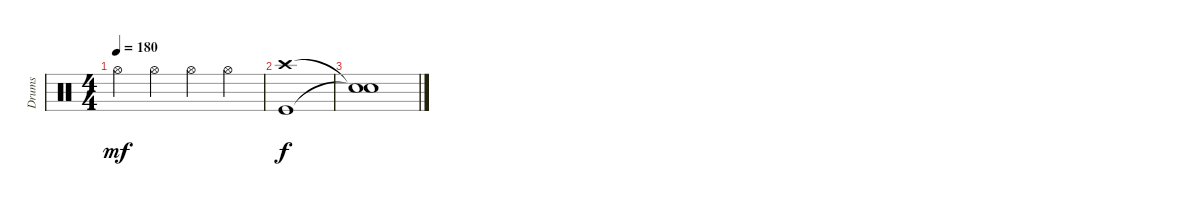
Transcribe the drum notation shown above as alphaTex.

\track ("Drums" "Drums") {instrument percussion}
\staff {score}
\articulation defaults
\ts (4 4)
\tempo 180
\clef neutral
\ks c "Hi-Hat (open)".4{dy mf} "Hi-Hat (open)".4 "Hi-Hat (open)".4 "Hi-Hat (open)".4
|
("Crash high (hit)" "Kick (hit)").1{dy f} |
("Snare (hit)"{t} "Snare (hit)"{t}).1
